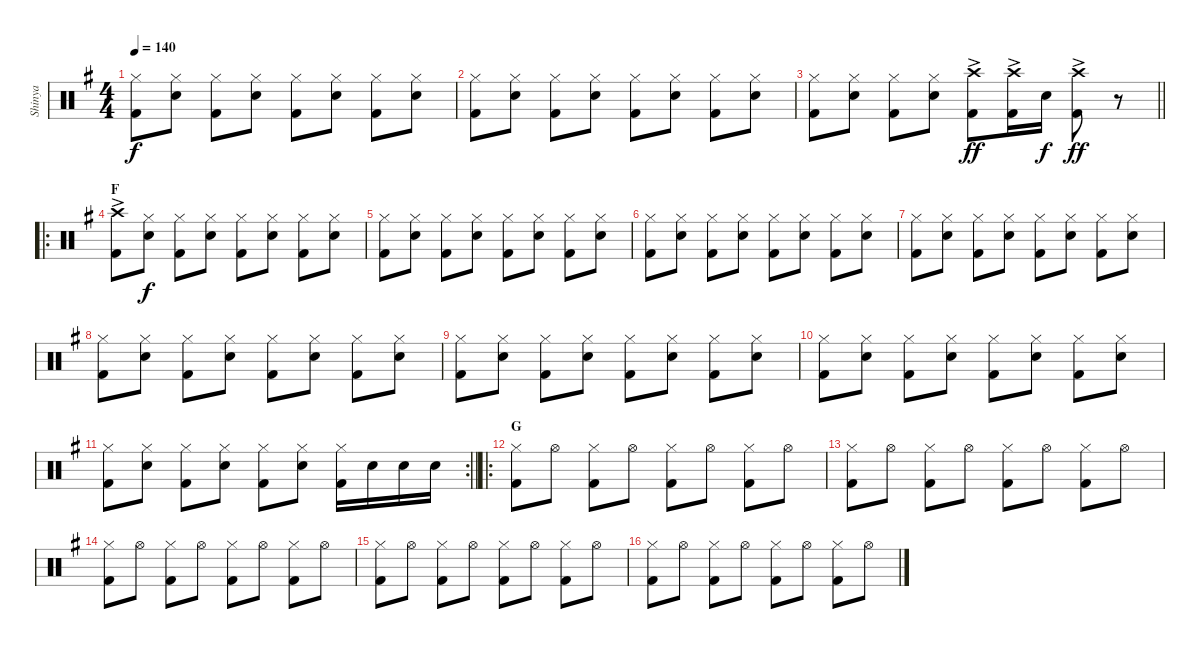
\track ("Shinya" "Shinya") {instrument percussion}
\staff {score}
\articulation defaults
\ts (4 4)
\tempo 140
\clef neutral
\ks g
("Hi-Hat (closed)" "Kick (hit) 2").8{dy f} ("Hi-Hat (closed)" "Snare (hit) 2").8 ("Hi-Hat (closed)" "Kick (hit) 2").8 ("Hi-Hat (closed)" "Snare (hit) 2").8 ("Hi-Hat (closed)" "Kick (hit) 2").8 ("Hi-Hat (closed)" "Snare (hit) 2").8 ("Hi-Hat (closed)" "Kick (hit) 2").8 ("Hi-Hat (closed)" "Snare (hit) 2").8 |
("Hi-Hat (closed)" "Kick (hit) 2").8 ("Hi-Hat (closed)" "Snare (hit) 2").8 ("Hi-Hat (closed)" "Kick (hit) 2").8 ("Hi-Hat (closed)" "Snare (hit) 2").8 ("Hi-Hat (closed)" "Kick (hit) 2").8 ("Hi-Hat (closed)" "Snare (hit) 2").8 ("Hi-Hat (closed)" "Kick (hit) 2").8 ("Hi-Hat (closed)" "Snare (hit) 2").8 |
\barLineRight lightlight
("Hi-Hat (closed)" "Kick (hit) 2").8 ("Hi-Hat (closed)" "Snare (hit) 2").8 ("Hi-Hat (closed)" "Kick (hit) 2").8 ("Hi-Hat (closed)" "Snare (hit) 2").8 ("Crash high (hit)"{ac} "Kick (hit) 2").8{dy ff} ("Crash high (hit)"{ac} "Kick (hit) 2").16 "Snare (hit) 2".16{dy f} ("Crash high (hit)"{ac} "Kick (hit) 2").8{dy ff} r.8 |
\ro
\section ("" "F")
("Crash high (hit)"{ac} "Kick (hit) 2").8 ("Hi-Hat (closed)" "Snare (hit) 2").8{dy f} ("Hi-Hat (closed)" "Kick (hit) 2").8 ("Hi-Hat (closed)" "Snare (hit) 2").8 ("Hi-Hat (closed)" "Kick (hit) 2").8 ("Hi-Hat (closed)" "Snare (hit) 2").8 ("Hi-Hat (closed)" "Kick (hit) 2").8 ("Hi-Hat (closed)" "Snare (hit) 2").8 |
("Hi-Hat (closed)" "Kick (hit) 2").8 ("Hi-Hat (closed)" "Snare (hit) 2").8 ("Hi-Hat (closed)" "Kick (hit) 2").8 ("Hi-Hat (closed)" "Snare (hit) 2").8 ("Hi-Hat (closed)" "Kick (hit) 2").8 ("Hi-Hat (closed)" "Snare (hit) 2").8 ("Hi-Hat (closed)" "Kick (hit) 2").8 ("Hi-Hat (closed)" "Snare (hit) 2").8 |
("Hi-Hat (closed)" "Kick (hit) 2").8 ("Hi-Hat (closed)" "Snare (hit) 2").8 ("Hi-Hat (closed)" "Kick (hit) 2").8 ("Hi-Hat (closed)" "Snare (hit) 2").8 ("Hi-Hat (closed)" "Kick (hit) 2").8 ("Hi-Hat (closed)" "Snare (hit) 2").8 ("Hi-Hat (closed)" "Kick (hit) 2").8 ("Hi-Hat (closed)" "Snare (hit) 2").8 |
("Hi-Hat (closed)" "Kick (hit) 2").8 ("Hi-Hat (closed)" "Snare (hit) 2").8 ("Hi-Hat (closed)" "Kick (hit) 2").8 ("Hi-Hat (closed)" "Snare (hit) 2").8 ("Hi-Hat (closed)" "Kick (hit) 2").8 ("Hi-Hat (closed)" "Snare (hit) 2").8 ("Hi-Hat (closed)" "Kick (hit) 2").8 ("Hi-Hat (closed)" "Snare (hit) 2").8 |
("Hi-Hat (closed)" "Kick (hit) 2").8 ("Hi-Hat (closed)" "Snare (hit) 2").8 ("Hi-Hat (closed)" "Kick (hit) 2").8 ("Hi-Hat (closed)" "Snare (hit) 2").8 ("Hi-Hat (closed)" "Kick (hit) 2").8 ("Hi-Hat (closed)" "Snare (hit) 2").8 ("Hi-Hat (closed)" "Kick (hit) 2").8 ("Hi-Hat (closed)" "Snare (hit) 2").8 |
("Hi-Hat (closed)" "Kick (hit) 2").8 ("Hi-Hat (closed)" "Snare (hit) 2").8 ("Hi-Hat (closed)" "Kick (hit) 2").8 ("Hi-Hat (closed)" "Snare (hit) 2").8 ("Hi-Hat (closed)" "Kick (hit) 2").8 ("Hi-Hat (closed)" "Snare (hit) 2").8 ("Hi-Hat (closed)" "Kick (hit) 2").8 ("Hi-Hat (closed)" "Snare (hit) 2").8 |
("Hi-Hat (closed)" "Kick (hit) 2").8 ("Hi-Hat (closed)" "Snare (hit) 2").8 ("Hi-Hat (closed)" "Kick (hit) 2").8 ("Hi-Hat (closed)" "Snare (hit) 2").8 ("Hi-Hat (closed)" "Kick (hit) 2").8 ("Hi-Hat (closed)" "Snare (hit) 2").8 ("Hi-Hat (closed)" "Kick (hit) 2").8 ("Hi-Hat (closed)" "Snare (hit) 2").8 |
\rc 2
\barLineRight lightlight
("Hi-Hat (closed)" "Kick (hit) 2").8 ("Hi-Hat (closed)" "Snare (hit) 2").8 ("Hi-Hat (closed)" "Kick (hit) 2").8 ("Hi-Hat (closed)" "Snare (hit) 2").8 ("Hi-Hat (closed)" "Kick (hit) 2").8 ("Hi-Hat (closed)" "Snare (hit) 2").8 ("Hi-Hat (closed)" "Kick (hit) 2").16 "Snare (hit) 2".16 "Snare (hit) 2".16 "Snare (hit) 2".16 |
\ro
\section ("" "G")
("Hi-Hat (closed)" "Kick (hit) 2").8 "Hi-Hat (open)".8 ("Hi-Hat (closed)" "Kick (hit) 2").8 "Hi-Hat (open)".8 ("Hi-Hat (closed)" "Kick (hit) 2").8 "Hi-Hat (open)".8 ("Hi-Hat (closed)" "Kick (hit) 2").8 "Hi-Hat (open)".8 |
("Hi-Hat (closed)" "Kick (hit) 2").8 "Hi-Hat (open)".8 ("Hi-Hat (closed)" "Kick (hit) 2").8 "Hi-Hat (open)".8 ("Hi-Hat (closed)" "Kick (hit) 2").8 "Hi-Hat (open)".8 ("Hi-Hat (closed)" "Kick (hit) 2").8 "Hi-Hat (open)".8 |
("Hi-Hat (closed)" "Kick (hit) 2").8 "Hi-Hat (open)".8 ("Hi-Hat (closed)" "Kick (hit) 2").8 "Hi-Hat (open)".8 ("Hi-Hat (closed)" "Kick (hit) 2").8 "Hi-Hat (open)".8 ("Hi-Hat (closed)" "Kick (hit) 2").8 "Hi-Hat (open)".8 |
("Hi-Hat (closed)" "Kick (hit) 2").8 "Hi-Hat (open)".8 ("Hi-Hat (closed)" "Kick (hit) 2").8 "Hi-Hat (open)".8 ("Hi-Hat (closed)" "Kick (hit) 2").8 "Hi-Hat (open)".8 ("Hi-Hat (closed)" "Kick (hit) 2").8 "Hi-Hat (open)".8 |
("Hi-Hat (closed)" "Kick (hit) 2").8 "Hi-Hat (open)".8 ("Hi-Hat (closed)" "Kick (hit) 2").8 "Hi-Hat (open)".8 ("Hi-Hat (closed)" "Kick (hit) 2").8 "Hi-Hat (open)".8 ("Hi-Hat (closed)" "Kick (hit) 2").8 "Hi-Hat (open)".8
